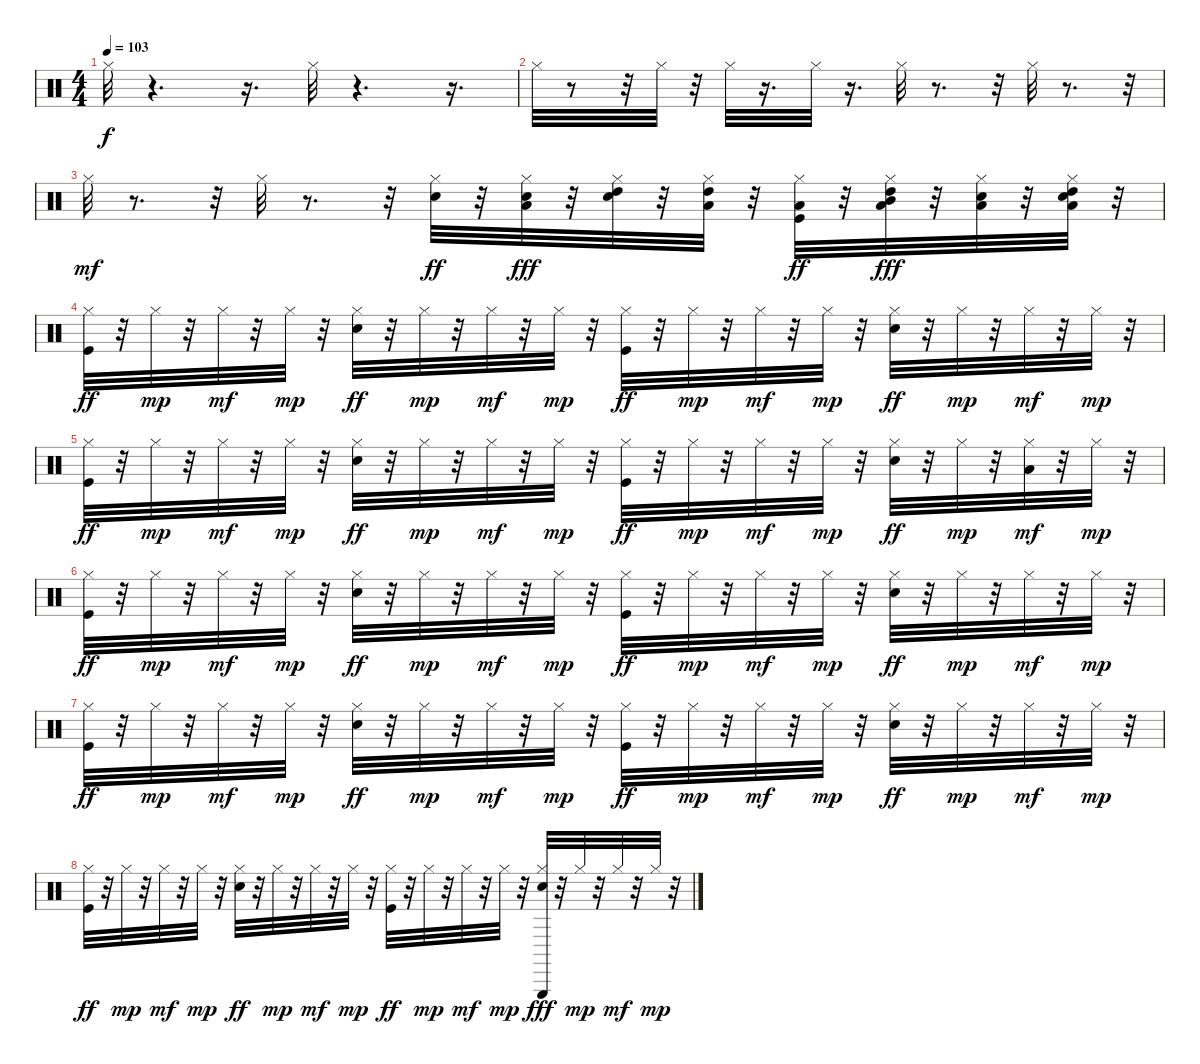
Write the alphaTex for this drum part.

\track "" {instrument percussion}
\staff {score}
\articulation defaults
\ts (4 4)
\tempo 103
\clef neutral
\ks c "Hi-Hat (closed)".32{dy f}
r.4{d} r.16{d} "Hi-Hat (closed)".32 r.4{d} r.16{d} |
"Hi-Hat (closed)".32 r.8 r.32 "Hi-Hat (closed)".32 r.32 "Hi-Hat (closed)".32 r.16{d} "Hi-Hat (closed)".32 r.16{d} "Hi-Hat (closed)".32 r.8{d} r.32 "Hi-Hat (closed)".32 r.8{d} r.32 |
"Hi-Hat (closed)".32{dy mf} r.8{d} r.32 "Hi-Hat (closed)".32 r.8{d} r.32 ("Electric Snare (hit)" "Hi-Hat (closed)").32{dy ff} r.32 ("Electric Snare (hit)" "Hi-Hat (closed)" "Low Floor Tom (hit)").32{dy fff} r.32 ("Electric Snare (hit)" "Hi-Hat (closed)" "High Tom (hit)").32 r.32 ("Hi-Hat (closed)" "Low Floor Tom (hit)" "High Tom (hit)").32 r.32 ("Kick (hit)" "Hi-Hat (closed)" "Low Tom (hit)").32{dy ff} r.32 ("Hi-Hat (closed)" "High Tom (hit)" "Low Tom (hit)" "Mid Tom (hit)").32{dy fff} r.32 ("Electric Snare (hit)" "Hi-Hat (closed)" "Low Floor Tom (hit)").32 r.32 ("Electric Snare (hit)" "Hi-Hat (closed)" "Low Tom (hit)" "High Tom (hit)").32 r.32 |
("Kick (hit)" "Hi-Hat (closed)").32{dy ff} r.32 "Hi-Hat (closed)".32{dy mp} r.32 "Hi-Hat (closed)".32{dy mf} r.32 "Hi-Hat (closed)".32{dy mp} r.32 ("Snare (hit) 2" "Hi-Hat (closed)").32{dy ff} r.32 "Hi-Hat (closed)".32{dy mp} r.32 "Hi-Hat (closed)".32{dy mf} r.32 "Hi-Hat (closed)".32{dy mp} r.32 ("Kick (hit)" "Hi-Hat (closed)").32{dy ff} r.32 "Hi-Hat (closed)".32{dy mp} r.32 "Hi-Hat (closed)".32{dy mf} r.32 "Hi-Hat (closed)".32{dy mp} r.32 ("Snare (hit) 2" "Hi-Hat (closed)").32{dy ff} r.32 "Hi-Hat (closed)".32{dy mp} r.32 "Hi-Hat (closed)".32{dy mf} r.32 "Hi-Hat (closed)".32{dy mp} r.32 |
("Kick (hit)" "Hi-Hat (closed)").32{dy ff} r.32 "Hi-Hat (closed)".32{dy mp} r.32 "Hi-Hat (closed)".32{dy mf} r.32 "Hi-Hat (closed)".32{dy mp} r.32 ("Snare (hit) 2" "Hi-Hat (closed)").32{dy ff} r.32 "Hi-Hat (closed)".32{dy mp} r.32 "Hi-Hat (closed)".32{dy mf} r.32 "Hi-Hat (closed)".32{dy mp} r.32 ("Kick (hit)" "Hi-Hat (closed)").32{dy ff} r.32 "Hi-Hat (closed)".32{dy mp} r.32 "Hi-Hat (closed)".32{dy mf} r.32 "Hi-Hat (closed)".32{dy mp} r.32 ("Snare (hit) 2" "Hi-Hat (closed)").32{dy ff} r.32 "Hi-Hat (closed)".32{dy mp} r.32 ("Hi-Hat (closed)" "Low Floor Tom (hit)").32{dy mf} r.32 "Hi-Hat (closed)".32{dy mp} r.32 |
("Kick (hit)" "Hi-Hat (closed)").32{dy ff} r.32 "Hi-Hat (closed)".32{dy mp} r.32 "Hi-Hat (closed)".32{dy mf} r.32 "Hi-Hat (closed)".32{dy mp} r.32 ("Snare (hit) 2" "Hi-Hat (closed)").32{dy ff} r.32 "Hi-Hat (closed)".32{dy mp} r.32 "Hi-Hat (closed)".32{dy mf} r.32 "Hi-Hat (closed)".32{dy mp} r.32 ("Kick (hit)" "Hi-Hat (closed)").32{dy ff} r.32 "Hi-Hat (closed)".32{dy mp} r.32 "Hi-Hat (closed)".32{dy mf} r.32 "Hi-Hat (closed)".32{dy mp} r.32 ("Snare (hit) 2" "Hi-Hat (closed)").32{dy ff} r.32 "Hi-Hat (closed)".32{dy mp} r.32 "Hi-Hat (closed)".32{dy mf} r.32 "Hi-Hat (closed)".32{dy mp} r.32 |
("Kick (hit)" "Hi-Hat (closed)").32{dy ff} r.32 "Hi-Hat (closed)".32{dy mp} r.32 "Hi-Hat (closed)".32{dy mf} r.32 "Hi-Hat (closed)".32{dy mp} r.32 ("Snare (hit) 2" "Hi-Hat (closed)").32{dy ff} r.32 "Hi-Hat (closed)".32{dy mp} r.32 "Hi-Hat (closed)".32{dy mf} r.32 "Hi-Hat (closed)".32{dy mp} r.32 ("Kick (hit)" "Hi-Hat (closed)").32{dy ff} r.32 "Hi-Hat (closed)".32{dy mp} r.32 "Hi-Hat (closed)".32{dy mf} r.32 "Hi-Hat (closed)".32{dy mp} r.32 ("Snare (hit) 2" "Hi-Hat (closed)").32{dy ff} r.32 "Hi-Hat (closed)".32{dy mp} r.32 "Hi-Hat (closed)".32{dy mf} r.32 "Hi-Hat (closed)".32{dy mp} r.32 |
("Kick (hit)" "Hi-Hat (closed)").32{dy ff} r.32 "Hi-Hat (closed)".32{dy mp} r.32 "Hi-Hat (closed)".32{dy mf} r.32 "Hi-Hat (closed)".32{dy mp} r.32 ("Snare (hit) 2" "Hi-Hat (closed)").32{dy ff} r.32 "Hi-Hat (closed)".32{dy mp} r.32 "Hi-Hat (closed)".32{dy mf} r.32 "Hi-Hat (closed)".32{dy mp} r.32 ("Kick (hit)" "Hi-Hat (closed)").32{dy ff} r.32 "Hi-Hat (closed)".32{dy mp} r.32 "Hi-Hat (closed)".32{dy mf} r.32 "Hi-Hat (closed)".32{dy mp} r.32 ("Snare (hit) 2" "Hi-Hat (closed)" "Triangle (hit)").32{dy fff} r.32 "Hi-Hat (closed)".32{dy mp} r.32 "Hi-Hat (closed)".32{dy mf} r.32 "Hi-Hat (closed)".32{dy mp} r.32
